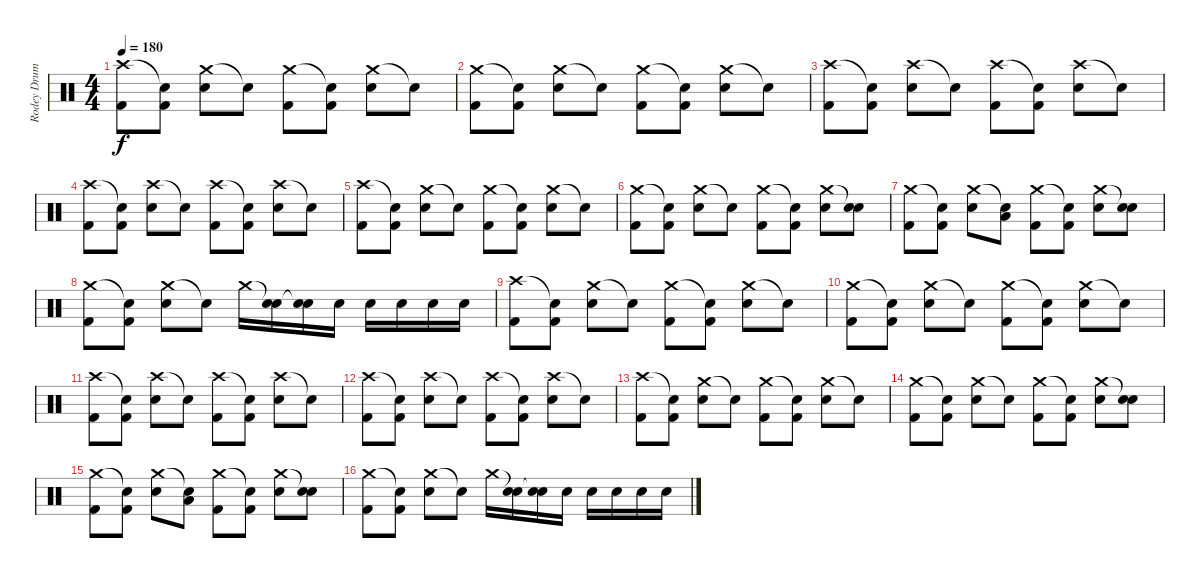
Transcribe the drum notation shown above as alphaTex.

\track ("Rodey Drums" "Rodey Drum") {instrument percussion}
\staff {score}
\articulation defaults
\ts (4 4)
\tempo 180
\clef neutral
\ks c
("Crash high (hit)" "Kick (hit) 2").8{dy f} ("Snare (hit)"{t} "Kick (hit) 2").8 ("Crash medium (hit)" "Electric Snare (hit)").8 "Snare (hit)"{t}.8 ("Crash medium (hit)" "Kick (hit) 2").8 ("Snare (hit)"{t} "Kick (hit) 2").8 ("Crash medium (hit)" "Electric Snare (hit)").8 "Snare (hit)"{t}.8 |
("Crash medium (hit)" "Kick (hit) 2").8 ("Snare (hit)"{t} "Kick (hit) 2").8 ("Crash medium (hit)" "Electric Snare (hit)").8 "Snare (hit)"{t}.8 ("Crash medium (hit)" "Kick (hit) 2").8 ("Snare (hit)"{t} "Kick (hit) 2").8 ("Crash medium (hit)" "Electric Snare (hit)").8 "Snare (hit)"{t}.8 |
("Crash high (hit)" "Kick (hit) 2").8 ("Snare (hit)"{t} "Kick (hit) 2").8 ("Crash high (hit)" "Electric Snare (hit)").8 "Snare (hit)"{t}.8 ("Crash high (hit)" "Kick (hit) 2").8 ("Snare (hit)"{t} "Kick (hit) 2").8 ("Crash high (hit)" "Electric Snare (hit)").8 "Snare (hit)"{t}.8 |
("Crash high (hit)" "Kick (hit) 2").8 ("Snare (hit)"{t} "Kick (hit) 2").8 ("Crash high (hit)" "Electric Snare (hit)").8 "Snare (hit)"{t}.8 ("Crash high (hit)" "Kick (hit) 2").8 ("Snare (hit)"{t} "Kick (hit) 2").8 ("Crash high (hit)" "Electric Snare (hit)").8 "Snare (hit)"{t}.8 |
("Crash high (hit)" "Kick (hit) 2").8 ("Snare (hit)"{t} "Kick (hit) 2").8 ("Crash medium (hit)" "Electric Snare (hit)").8 "Snare (hit)"{t}.8 ("Crash medium (hit)" "Kick (hit) 2").8 ("Snare (hit)"{t} "Kick (hit) 2").8 ("Crash medium (hit)" "Electric Snare (hit)").8 "Snare (hit)"{t}.8 |
("Crash medium (hit)" "Kick (hit) 2").8 ("Snare (hit)"{t} "Kick (hit) 2").8 ("Crash medium (hit)" "Electric Snare (hit)").8 "Snare (hit)"{t}.8 ("Crash medium (hit)" "Kick (hit) 2").8 ("Snare (hit)"{t} "Kick (hit) 2").8 ("Crash medium (hit)" "Electric Snare (hit)").8 ("Snare (hit)"{t} "Electric Snare (hit)").8 |
("Crash medium (hit)" "Kick (hit) 2").8 ("Snare (hit)"{t} "Kick (hit) 2").8 ("Crash medium (hit)" "Electric Snare (hit)").8 ("Snare (hit)"{t} "Low Floor Tom (hit)").8 ("Crash medium (hit)" "Kick (hit) 2").8 ("Snare (hit)"{t} "Kick (hit) 2").8 ("Crash medium (hit)" "Electric Snare (hit)").8 ("Snare (hit)"{t} "Electric Snare (hit)").8 |
("Crash medium (hit)" "Kick (hit) 2").8 ("Snare (hit)"{t} "Kick (hit) 2").8 ("Crash medium (hit)" "Electric Snare (hit)").8 "Snare (hit)"{t}.8 "Crash medium (hit)".16 ("Snare (hit)"{t} "Electric Snare (hit)").16 ("Snare (hit)"{t} "Electric Snare (hit)").16 "Electric Snare (hit)".16 "Electric Snare (hit)".16 "Electric Snare (hit)".16 "Electric Snare (hit)".16 "Electric Snare (hit)".16 |
("Crash high (hit)" "Kick (hit) 2").8 ("Snare (hit)"{t} "Kick (hit) 2").8 ("Crash medium (hit)" "Electric Snare (hit)").8 "Snare (hit)"{t}.8 ("Crash medium (hit)" "Kick (hit) 2").8 ("Snare (hit)"{t} "Kick (hit) 2").8 ("Crash medium (hit)" "Electric Snare (hit)").8 "Snare (hit)"{t}.8 |
("Crash medium (hit)" "Kick (hit) 2").8 ("Snare (hit)"{t} "Kick (hit) 2").8 ("Crash medium (hit)" "Electric Snare (hit)").8 "Snare (hit)"{t}.8 ("Crash medium (hit)" "Kick (hit) 2").8 ("Snare (hit)"{t} "Kick (hit) 2").8 ("Crash medium (hit)" "Electric Snare (hit)").8 "Snare (hit)"{t}.8 |
("Crash high (hit)" "Kick (hit) 2").8 ("Snare (hit)"{t} "Kick (hit) 2").8 ("Crash high (hit)" "Electric Snare (hit)").8 "Snare (hit)"{t}.8 ("Crash high (hit)" "Kick (hit) 2").8 ("Snare (hit)"{t} "Kick (hit) 2").8 ("Crash high (hit)" "Electric Snare (hit)").8 "Snare (hit)"{t}.8 |
("Crash high (hit)" "Kick (hit) 2").8 ("Snare (hit)"{t} "Kick (hit) 2").8 ("Crash high (hit)" "Electric Snare (hit)").8 "Snare (hit)"{t}.8 ("Crash high (hit)" "Kick (hit) 2").8 ("Snare (hit)"{t} "Kick (hit) 2").8 ("Crash high (hit)" "Electric Snare (hit)").8 "Snare (hit)"{t}.8 |
("Crash high (hit)" "Kick (hit) 2").8 ("Snare (hit)"{t} "Kick (hit) 2").8 ("Crash medium (hit)" "Electric Snare (hit)").8 "Snare (hit)"{t}.8 ("Crash medium (hit)" "Kick (hit) 2").8 ("Snare (hit)"{t} "Kick (hit) 2").8 ("Crash medium (hit)" "Electric Snare (hit)").8 "Snare (hit)"{t}.8 |
("Crash medium (hit)" "Kick (hit) 2").8 ("Snare (hit)"{t} "Kick (hit) 2").8 ("Crash medium (hit)" "Electric Snare (hit)").8 "Snare (hit)"{t}.8 ("Crash medium (hit)" "Kick (hit) 2").8 ("Snare (hit)"{t} "Kick (hit) 2").8 ("Crash medium (hit)" "Electric Snare (hit)").8 ("Snare (hit)"{t} "Electric Snare (hit)").8 |
("Crash medium (hit)" "Kick (hit) 2").8 ("Snare (hit)"{t} "Kick (hit) 2").8 ("Crash medium (hit)" "Electric Snare (hit)").8 ("Snare (hit)"{t} "Low Floor Tom (hit)").8 ("Crash medium (hit)" "Kick (hit) 2").8 ("Snare (hit)"{t} "Kick (hit) 2").8 ("Crash medium (hit)" "Electric Snare (hit)").8 ("Snare (hit)"{t} "Electric Snare (hit)").8 |
("Crash medium (hit)" "Kick (hit) 2").8 ("Snare (hit)"{t} "Kick (hit) 2").8 ("Crash medium (hit)" "Electric Snare (hit)").8 "Snare (hit)"{t}.8 "Crash medium (hit)".16 ("Snare (hit)"{t} "Electric Snare (hit)").16 ("Snare (hit)"{t} "Electric Snare (hit)").16 "Electric Snare (hit)".16 "Electric Snare (hit)".16 "Electric Snare (hit)".16 "Electric Snare (hit)".16 "Electric Snare (hit)".16
